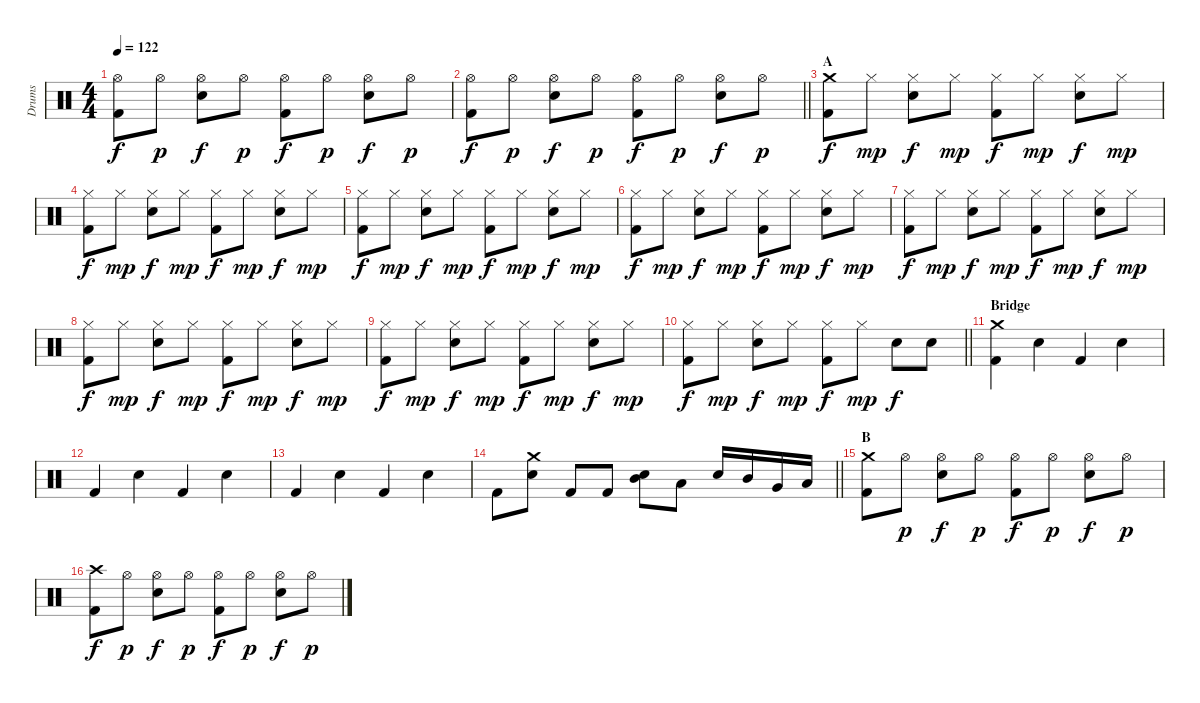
\track ("Drums" "Drums") {instrument percussion}
\staff {score}
\articulation defaults
\ts (4 4)
\tempo 122
\clef neutral
\ks c
("Hi-Hat (open)" "Kick (hit) 2").8{dy f} "Hi-Hat (open)".8{dy p} ("Hi-Hat (open)" "Electric Snare (hit)").8{dy f} "Hi-Hat (open)".8{dy p} ("Hi-Hat (open)" "Kick (hit) 2").8{dy f} "Hi-Hat (open)".8{dy p} ("Hi-Hat (open)" "Electric Snare (hit)").8{dy f} "Hi-Hat (open)".8{dy p} |
\barLineRight lightlight
("Hi-Hat (open)" "Kick (hit) 2").8{dy f} "Hi-Hat (open)".8{dy p} ("Hi-Hat (open)" "Electric Snare (hit)").8{dy f} "Hi-Hat (open)".8{dy p} ("Hi-Hat (open)" "Kick (hit) 2").8{dy f} "Hi-Hat (open)".8{dy p} ("Hi-Hat (open)" "Electric Snare (hit)").8{dy f} "Hi-Hat (open)".8{dy p} |
\section ("" "A")
("Crash medium (hit)" "Kick (hit) 2").8{dy f} "Hi-Hat (closed)".8{dy mp} ("Hi-Hat (closed)" "Electric Snare (hit)").8{dy f} "Hi-Hat (closed)".8{dy mp} ("Hi-Hat (closed)" "Kick (hit) 2").8{dy f} "Hi-Hat (closed)".8{dy mp} ("Hi-Hat (closed)" "Electric Snare (hit)").8{dy f} "Hi-Hat (closed)".8{dy mp} |
("Hi-Hat (closed)" "Kick (hit) 2").8{dy f} "Hi-Hat (closed)".8{dy mp} ("Hi-Hat (closed)" "Electric Snare (hit)").8{dy f} "Hi-Hat (closed)".8{dy mp} ("Hi-Hat (closed)" "Kick (hit) 2").8{dy f} "Hi-Hat (closed)".8{dy mp} ("Hi-Hat (closed)" "Electric Snare (hit)").8{dy f} "Hi-Hat (closed)".8{dy mp} |
("Hi-Hat (closed)" "Kick (hit) 2").8{dy f} "Hi-Hat (closed)".8{dy mp} ("Hi-Hat (closed)" "Electric Snare (hit)").8{dy f} "Hi-Hat (closed)".8{dy mp} ("Hi-Hat (closed)" "Kick (hit) 2").8{dy f} "Hi-Hat (closed)".8{dy mp} ("Hi-Hat (closed)" "Electric Snare (hit)").8{dy f} "Hi-Hat (closed)".8{dy mp} |
("Hi-Hat (closed)" "Kick (hit) 2").8{dy f} "Hi-Hat (closed)".8{dy mp} ("Hi-Hat (closed)" "Electric Snare (hit)").8{dy f} "Hi-Hat (closed)".8{dy mp} ("Hi-Hat (closed)" "Kick (hit) 2").8{dy f} "Hi-Hat (closed)".8{dy mp} ("Hi-Hat (closed)" "Electric Snare (hit)").8{dy f} "Hi-Hat (closed)".8{dy mp} |
("Hi-Hat (closed)" "Kick (hit) 2").8{dy f} "Hi-Hat (closed)".8{dy mp} ("Hi-Hat (closed)" "Electric Snare (hit)").8{dy f} "Hi-Hat (closed)".8{dy mp} ("Hi-Hat (closed)" "Kick (hit) 2").8{dy f} "Hi-Hat (closed)".8{dy mp} ("Hi-Hat (closed)" "Electric Snare (hit)").8{dy f} "Hi-Hat (closed)".8{dy mp} |
("Hi-Hat (closed)" "Kick (hit) 2").8{dy f} "Hi-Hat (closed)".8{dy mp} ("Hi-Hat (closed)" "Electric Snare (hit)").8{dy f} "Hi-Hat (closed)".8{dy mp} ("Hi-Hat (closed)" "Kick (hit) 2").8{dy f} "Hi-Hat (closed)".8{dy mp} ("Hi-Hat (closed)" "Electric Snare (hit)").8{dy f} "Hi-Hat (closed)".8{dy mp} |
("Hi-Hat (closed)" "Kick (hit) 2").8{dy f} "Hi-Hat (closed)".8{dy mp} ("Hi-Hat (closed)" "Electric Snare (hit)").8{dy f} "Hi-Hat (closed)".8{dy mp} ("Hi-Hat (closed)" "Kick (hit) 2").8{dy f} "Hi-Hat (closed)".8{dy mp} ("Hi-Hat (closed)" "Electric Snare (hit)").8{dy f} "Hi-Hat (closed)".8{dy mp} |
\barLineRight lightlight
("Hi-Hat (closed)" "Kick (hit) 2").8{dy f} "Hi-Hat (closed)".8{dy mp} ("Hi-Hat (closed)" "Electric Snare (hit)").8{dy f} "Hi-Hat (closed)".8{dy mp} ("Hi-Hat (closed)" "Kick (hit) 2").8{dy f} "Hi-Hat (closed)".8{dy mp} "Electric Snare (hit)".8{dy f} "Electric Snare (hit)".8 |
\section ("" "Bridge")
("Kick (hit) 2" "Crash medium (hit)").4 "Electric Snare (hit)".4 "Kick (hit) 2".4 "Electric Snare (hit)".4 |
"Kick (hit) 2".4 "Electric Snare (hit)".4 "Kick (hit) 2".4 "Electric Snare (hit)".4 |
"Kick (hit) 2".4 "Electric Snare (hit)".4 "Kick (hit) 2".4 "Electric Snare (hit)".4 |
\barLineRight lightlight "Kick (hit) 2".8
("Crash medium (hit)" "Electric Snare (hit)").8 "Kick (hit) 2".8 "Kick (hit) 2".8 ("Electric Snare (hit)" "Mid Tom (hit)").8 "Low Tom (hit)".8 "Electric Snare (hit)".16 "Mid Tom (hit)".16 "Very Low Tom (hit)".16 "Low Floor Tom (hit)".16 |
\section ("" "B")
("Crash medium (hit)" "Kick (hit) 2").8 "Hi-Hat (open)".8{dy p} ("Hi-Hat (open)" "Electric Snare (hit)").8{dy f} "Hi-Hat (open)".8{dy p} ("Hi-Hat (open)" "Kick (hit) 2").8{dy f} "Hi-Hat (open)".8{dy p} ("Hi-Hat (open)" "Electric Snare (hit)").8{dy f} "Hi-Hat (open)".8{dy p} |
("Crash high (hit)" "Kick (hit) 2").8{dy f} "Hi-Hat (open)".8{dy p} ("Hi-Hat (open)" "Electric Snare (hit)").8{dy f} "Hi-Hat (open)".8{dy p} ("Hi-Hat (open)" "Kick (hit) 2").8{dy f} "Hi-Hat (open)".8{dy p} ("Hi-Hat (open)" "Electric Snare (hit)").8{dy f} "Hi-Hat (open)".8{dy p}
